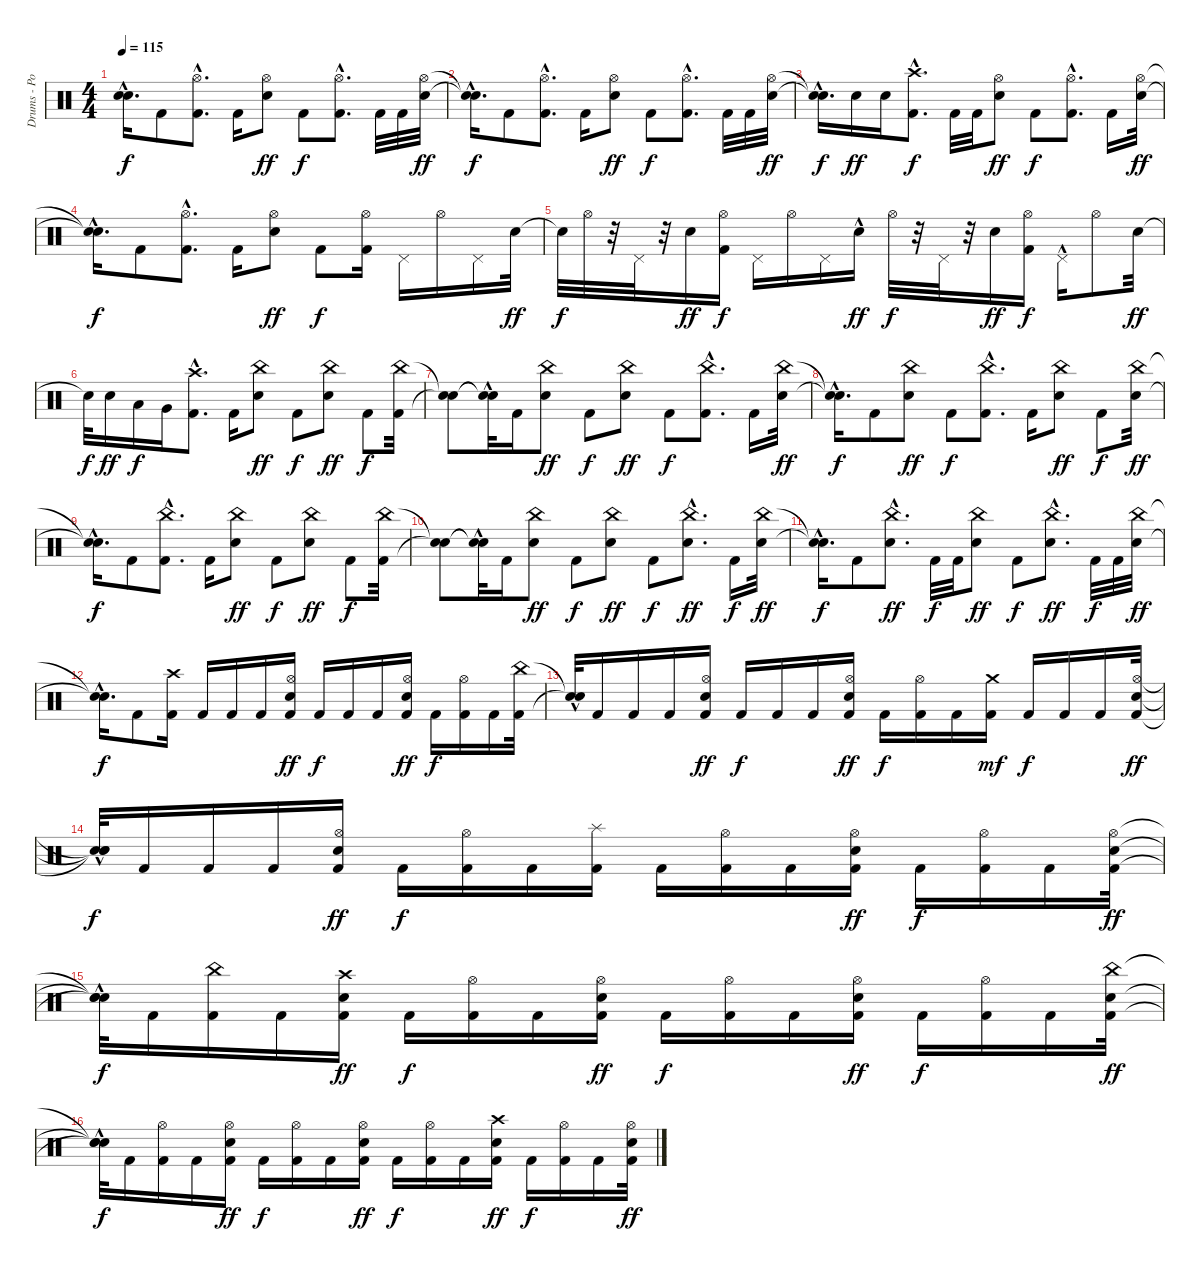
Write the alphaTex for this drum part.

\track ("Drums - Portnoy" "Drums - Po") {instrument percussion}
\staff {score}
\articulation defaults
\ts (4 4)
\tempo 115
\clef neutral
\ks c
("Snare (hit)"{hac t} "Snare (hit)"{hac t}).16{d dy f} "Kick (hit) 2".8 ("Kick (hit) 2"{hac} "Hi-Hat (open)").8{d} "Kick (hit) 2".16 ("Hi-Hat (open)" "Electric Snare (hit)").8{dy ff} "Kick (hit) 2".8{dy f} ("Kick (hit) 2"{hac} "Hi-Hat (open)").8{d} "Kick (hit) 2".32 "Kick (hit) 2".32 ("Hi-Hat (open)" "Electric Snare (hit)").32{dy ff} |
("Snare (hit)"{hac t} "Snare (hit)"{hac t}).16{d dy f} "Kick (hit) 2".8 ("Kick (hit) 2"{hac} "Hi-Hat (open)").8{d} "Kick (hit) 2".16 ("Hi-Hat (open)" "Electric Snare (hit)").8{dy ff} "Kick (hit) 2".8{dy f} ("Kick (hit) 2"{hac} "Hi-Hat (open)").8{d} "Kick (hit) 2".32 "Kick (hit) 2".32 ("Hi-Hat (open)" "Electric Snare (hit)").32{dy ff} |
("Snare (hit)"{hac t} "Snare (hit)"{hac t}).16{d dy f} "Electric Snare (hit)".16{dy ff} "Electric Snare (hit)".16 ("Kick (hit) 2"{hac} "Crash high (hit)").8{d dy f} "Kick (hit) 2".32 "Kick (hit) 2".32 ("Hi-Hat (open)" "Electric Snare (hit)").8{dy ff} "Kick (hit) 2".8{dy f} ("Kick (hit) 2"{hac} "Hi-Hat (open)").8{d} "Kick (hit) 2".16 ("Hi-Hat (open)" "Electric Snare (hit)").32{dy ff} |
("Snare (hit)"{hac t} "Snare (hit)"{hac t}).16{d dy f} "Kick (hit) 2".8 ("Kick (hit) 2"{hac} "Hi-Hat (open)").8{d} "Kick (hit) 2".16 ("Hi-Hat (open)" "Electric Snare (hit)").8{dy ff} "Kick (hit) 2".8{dy f} ("Kick (hit) 2" "Hi-Hat (open)").16 "Pedal Hi-Hat (hit)".16 "Hi-Hat (open)".16 "Pedal Hi-Hat (hit)".16 "Electric Snare (hit)".32{dy ff} |
"Snare (hit)"{t}.32{dy f} "Hi-Hat (open)".32 r.32 "Pedal Hi-Hat (hit)".32 r.32 "Electric Snare (hit)".16{dy ff} ("Kick (hit) 2" "Hi-Hat (open)").16{dy f} "Pedal Hi-Hat (hit)".16 "Hi-Hat (open)".16 "Pedal Hi-Hat (hit)".16 "Electric Snare (hit)"{hac}.16{dy ff} "Hi-Hat (open)".32{dy f} r.32 "Pedal Hi-Hat (hit)".32 r.32 "Electric Snare (hit)".16{dy ff} ("Hi-Hat (open)" "Kick (hit) 2").16{dy f} "Pedal Hi-Hat (hit)"{hac}.16 "Hi-Hat (open)".8 "Electric Snare (hit)".32{dy ff} |
"Snare (hit)"{t}.32{dy f} "Electric Snare (hit)".16{dy ff} "Low Tom (hit)".16{dy f} "Very Low Tom (hit)".16 ("Kick (hit) 2"{hac} "Crash high (hit)").8{d} "Kick (hit) 2".16 ("Electric Snare (hit)" "China (hit)").8{dy ff} "Kick (hit) 2".8{dy f} ("Electric Snare (hit)" "China (hit)").8{dy ff} "Kick (hit) 2".8{dy f} ("China (hit)" "Kick (hit) 2").32 |
("Snare (hit)"{t} "Snare (hit)"{t}).8 ("Snare (hit)"{hac t} "Snare (hit)"{t}).32 "Kick (hit) 2".16 ("China (hit)" "Electric Snare (hit)").8{dy ff} "Kick (hit) 2".8{dy f} ("China (hit)" "Electric Snare (hit)").8{dy ff} "Kick (hit) 2".8{dy f} ("China (hit)" "Kick (hit) 2"{hac}).8{d} "Kick (hit) 2".16 ("China (hit)" "Electric Snare (hit)").32{dy ff} |
("Snare (hit)"{hac t} "Snare (hit)"{hac t}).16{d dy f} "Kick (hit) 2".8 ("China (hit)" "Electric Snare (hit)").8{dy ff} "Kick (hit) 2".8{dy f} ("China (hit)" "Kick (hit) 2"{hac}).8{d} "Kick (hit) 2".16 ("China (hit)" "Electric Snare (hit)").8{dy ff} "Kick (hit) 2".8{dy f} ("China (hit)" "Electric Snare (hit)").32{dy ff} |
("Snare (hit)"{hac t} "Snare (hit)"{hac t}).16{d dy f} "Kick (hit) 2".8 ("China (hit)" "Kick (hit) 2"{hac}).8{d} "Kick (hit) 2".16 ("China (hit)" "Electric Snare (hit)").8{dy ff} "Kick (hit) 2".8{dy f} ("China (hit)" "Electric Snare (hit)").8{dy ff} "Kick (hit) 2".8{dy f} ("China (hit)" "Kick (hit) 2").32 |
("Snare (hit)"{t} "Snare (hit)"{t}).8 ("Snare (hit)"{hac t} "Snare (hit)"{t}).32 "Kick (hit) 2".16 ("China (hit)" "Electric Snare (hit)").8{dy ff} "Kick (hit) 2".8{dy f} ("China (hit)" "Electric Snare (hit)").8{dy ff} "Kick (hit) 2".8{dy f} ("Electric Snare (hit)"{hac} "China (hit)").8{d dy ff} "Kick (hit) 2".16{dy f} ("Electric Snare (hit)" "China (hit)").32{dy ff} |
("Snare (hit)"{hac t} "Snare (hit)"{hac t}).16{d dy f} "Kick (hit) 2".8 ("Electric Snare (hit)"{hac} "China (hit)").8{d dy ff} "Kick (hit) 2".32{dy f} "Kick (hit) 2".32 ("Electric Snare (hit)" "China (hit)").8{dy ff} "Kick (hit) 2".8{dy f} ("Electric Snare (hit)"{hac} "China (hit)").8{d dy ff} "Kick (hit) 2".32{dy f} "Kick (hit) 2".32 ("Electric Snare (hit)" "China (hit)").32{dy ff} |
("Snare (hit)"{hac t} "Snare (hit)"{hac t}).16{d dy f} "Kick (hit) 2".8 ("Kick (hit) 2" "Crash high (hit)").16 "Kick (hit) 2".16 "Kick (hit) 2".16 "Kick (hit) 2".16 ("Kick (hit) 2" "Hi-Hat (open)" "Electric Snare (hit)").16{dy ff} "Kick (hit) 2".16{dy f} "Kick (hit) 2".16 "Kick (hit) 2".16 ("Kick (hit) 2" "Hi-Hat (open)" "Electric Snare (hit)").16{dy ff} "Kick (hit) 2".16{dy f} ("Kick (hit) 2" "Hi-Hat (open)").16 "Kick (hit) 2".16 ("Kick (hit) 2" "China (hit)").32 |
("Snare (hit)"{t} "Snare (hit)"{hac t}).32 "Kick (hit) 2".16 "Kick (hit) 2".16 "Kick (hit) 2".16 ("Kick (hit) 2" "Hi-Hat (open)" "Electric Snare (hit)").16{dy ff} "Kick (hit) 2".16{dy f} "Kick (hit) 2".16 "Kick (hit) 2".16 ("Kick (hit) 2" "Hi-Hat (open)" "Electric Snare (hit)").16{dy ff} "Kick (hit) 2".16{dy f} ("Kick (hit) 2" "Hi-Hat (open)").16 "Kick (hit) 2".16 ("Kick (hit) 2" "Crash medium (hit)").16{dy mf} "Kick (hit) 2".16{dy f} "Kick (hit) 2".16 "Kick (hit) 2".16 ("Kick (hit) 2" "Hi-Hat (open)" "Electric Snare (hit)").32{dy ff} |
("Snare (hit)"{t} "Snare (hit)"{hac t} "Snare (hit)"{hac t}).32{dy f} "Kick (hit) 2".16 "Kick (hit) 2".16 "Kick (hit) 2".16 ("Kick (hit) 2" "Hi-Hat (open)" "Electric Snare (hit)").16{dy ff} "Kick (hit) 2".16{dy f} ("Kick (hit) 2" "Hi-Hat (open)").16 "Kick (hit) 2".16 ("Kick (hit) 2" "Splash (hit)").16 "Kick (hit) 2".16 ("Kick (hit) 2" "Hi-Hat (open)").16 "Kick (hit) 2".16 ("Kick (hit) 2" "Hi-Hat (open)" "Electric Snare (hit)").16{dy ff} "Kick (hit) 2".16{dy f} ("Kick (hit) 2" "Hi-Hat (open)").16 "Kick (hit) 2".16 ("Kick (hit) 2" "Hi-Hat (open)" "Electric Snare (hit)").32{dy ff} |
("Snare (hit)"{t} "Snare (hit)"{hac t} "Snare (hit)"{hac t}).32{dy f} "Kick (hit) 2".16 ("Kick (hit) 2" "China (hit)").16 "Kick (hit) 2".16 ("Kick (hit) 2" "Crash high (hit)" "Electric Snare (hit)").16{dy ff} "Kick (hit) 2".16{dy f} ("Kick (hit) 2" "Hi-Hat (open)").16 "Kick (hit) 2".16 ("Kick (hit) 2" "Hi-Hat (open)" "Electric Snare (hit)").16{dy ff} "Kick (hit) 2".16{dy f} ("Kick (hit) 2" "Hi-Hat (open)").16 "Kick (hit) 2".16 ("Kick (hit) 2" "Hi-Hat (open)" "Electric Snare (hit)").16{dy ff} "Kick (hit) 2".16{dy f} ("Kick (hit) 2" "Hi-Hat (open)").16 "Kick (hit) 2".16 ("Kick (hit) 2" "Electric Snare (hit)" "China (hit)").32{dy ff} |
("Snare (hit)"{t} "Snare (hit)"{hac t} "Snare (hit)"{hac t}).32{dy f} "Kick (hit) 2".16 ("Kick (hit) 2" "Hi-Hat (open)").16 "Kick (hit) 2".16 ("Kick (hit) 2" "Hi-Hat (open)" "Electric Snare (hit)").16{dy ff} "Kick (hit) 2".16{dy f} ("Kick (hit) 2" "Hi-Hat (open)").16 "Kick (hit) 2".16 ("Kick (hit) 2" "Hi-Hat (open)" "Electric Snare (hit)").16{dy ff} "Kick (hit) 2".16{dy f} ("Kick (hit) 2" "Hi-Hat (open)").16 "Kick (hit) 2".16 ("Kick (hit) 2" "Crash high (hit)" "Electric Snare (hit)").16{dy ff} "Kick (hit) 2".16{dy f} ("Kick (hit) 2" "Hi-Hat (open)").16 "Kick (hit) 2".16 ("Kick (hit) 2" "Hi-Hat (open)" "Electric Snare (hit)").32{dy ff}
